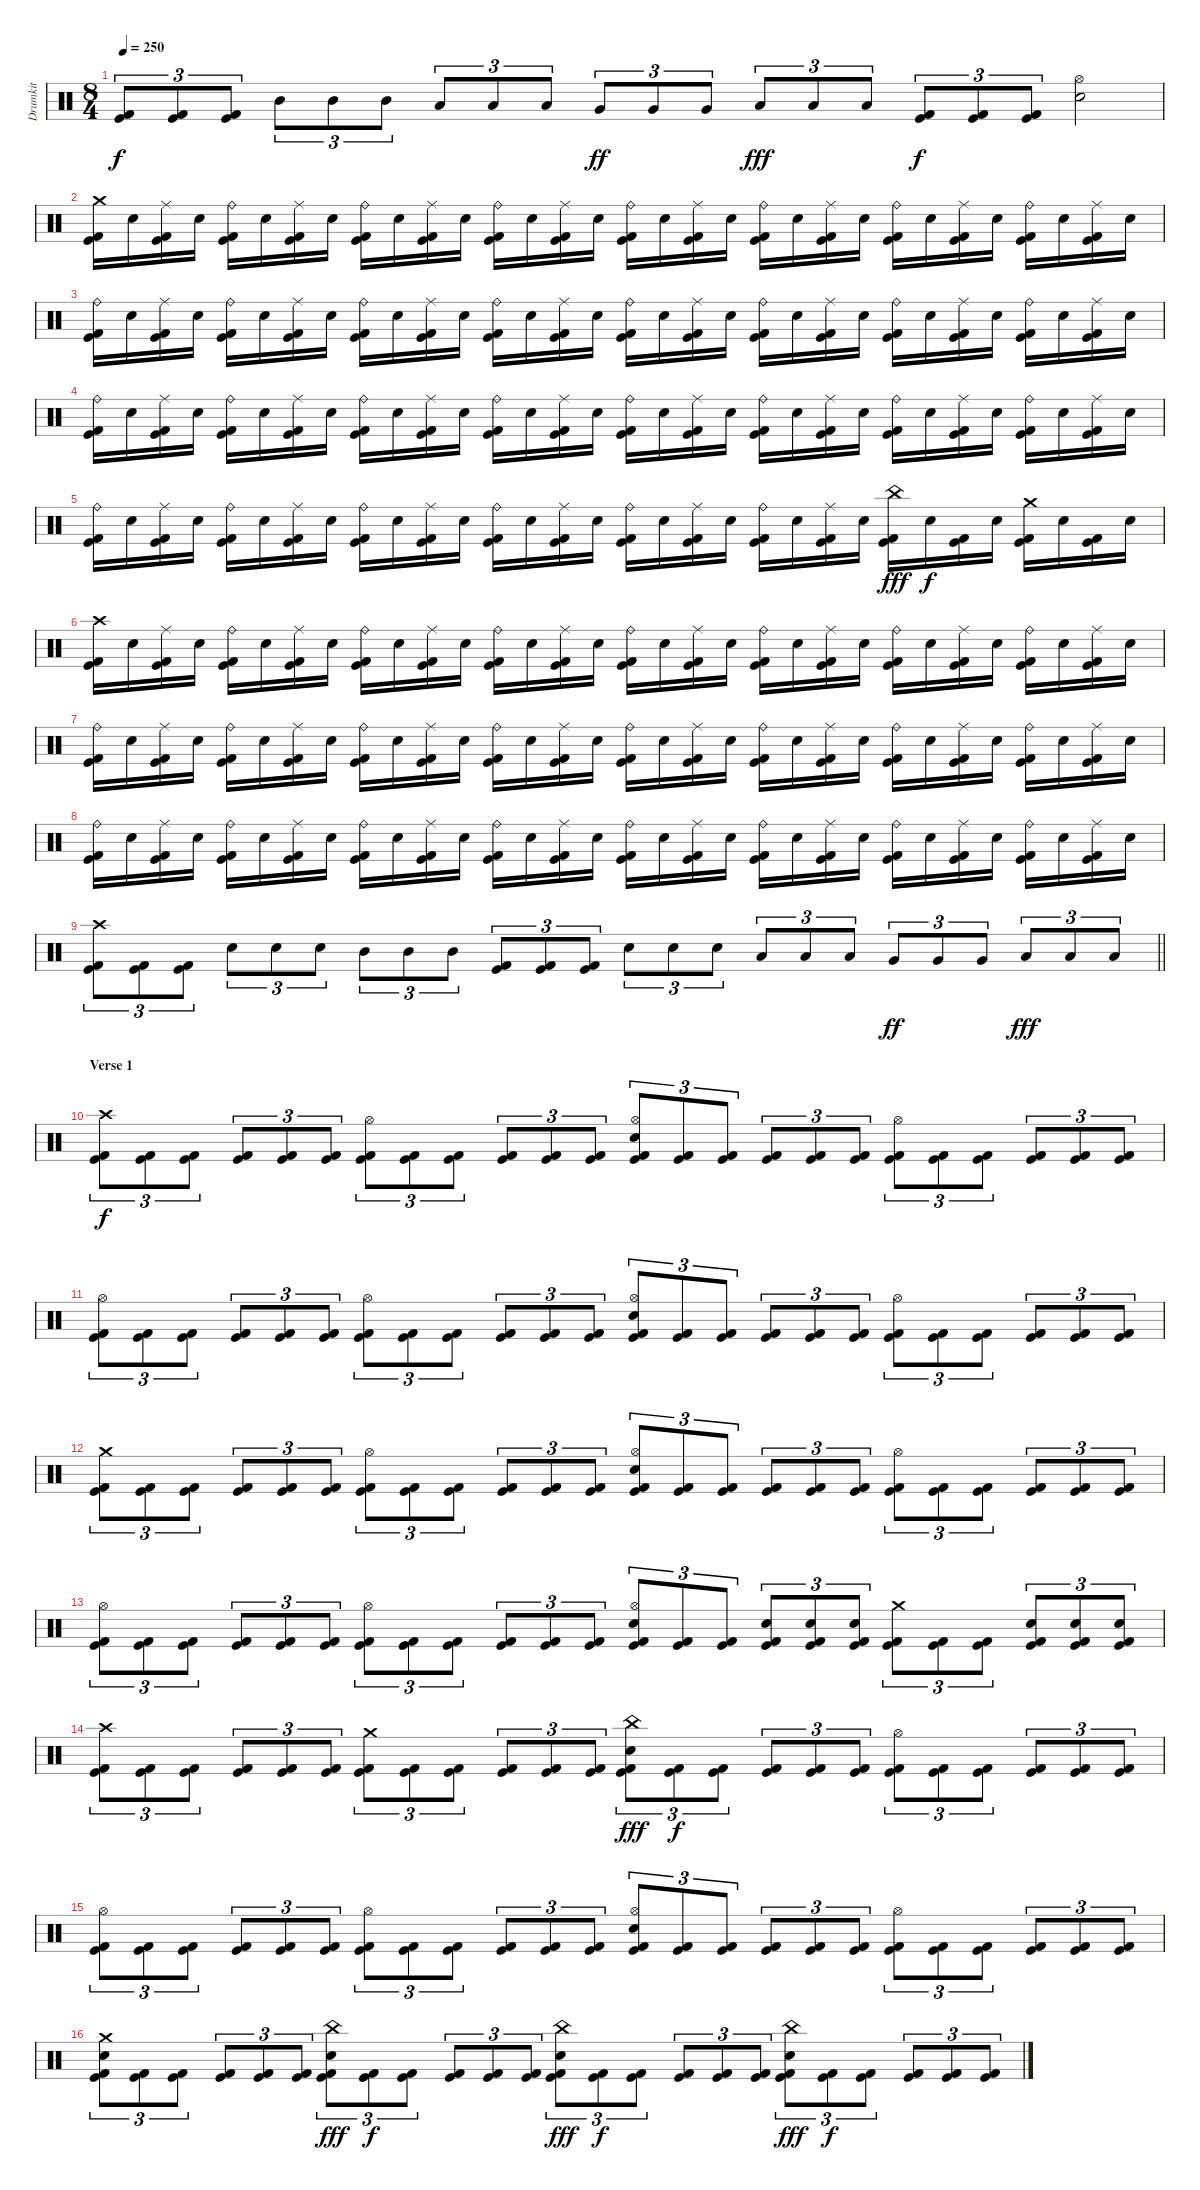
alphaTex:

\track ("Drumkit" "Drumkit") {instrument percussion}
\staff {score}
\articulation defaults
\ts (8 4)
\tempo 250
\clef neutral
\ks c
("Kick (hit)" "Kick (hit) 2").8{tu (3 2) dy f} ("Kick (hit)" "Kick (hit) 2").8{tu (3 2)} ("Kick (hit)" "Kick (hit) 2").8{tu (3 2)} "Mid Tom (hit)".8{tu (3 2)} "Mid Tom (hit)".8{tu (3 2)} "Mid Tom (hit)".8{tu (3 2)} "Low Tom (hit)".8{tu (3 2)} "Low Tom (hit)".8{tu (3 2)} "Low Tom (hit)".8{tu (3 2)} "Very Low Tom (hit)".8{tu (3 2) dy ff} "Very Low Tom (hit)".8{tu (3 2)} "Very Low Tom (hit)".8{tu (3 2)} "Low Floor Tom (hit)".8{tu (3 2) dy fff} "Low Floor Tom (hit)".8{tu (3 2)} "Low Floor Tom (hit)".8{tu (3 2)} ("Kick (hit)" "Kick (hit) 2").8{tu (3 2) dy f} ("Kick (hit)" "Kick (hit) 2").8{tu (3 2)} ("Kick (hit)" "Kick (hit) 2").8{tu (3 2)} ("Hi-Hat (open)" "Electric Snare (hit)").2 |
("Crash medium (hit)" "Kick (hit)" "Kick (hit) 2").16 "Electric Snare (hit)".16 ("Ride (middle)" "Kick (hit)" "Kick (hit) 2").16 "Electric Snare (hit)".16 ("Ride (bell)" "Kick (hit)" "Kick (hit) 2").16 "Electric Snare (hit)".16 ("Ride (middle)" "Kick (hit)" "Kick (hit) 2").16 "Electric Snare (hit)".16 ("Ride (bell)" "Kick (hit)" "Kick (hit) 2").16 "Electric Snare (hit)".16 ("Ride (middle)" "Kick (hit)" "Kick (hit) 2").16 "Electric Snare (hit)".16 ("Ride (bell)" "Kick (hit)" "Kick (hit) 2").16 "Electric Snare (hit)".16 ("Ride (middle)" "Kick (hit)" "Kick (hit) 2").16 "Electric Snare (hit)".16 ("Ride (bell)" "Kick (hit)" "Kick (hit) 2").16 "Electric Snare (hit)".16 ("Ride (middle)" "Kick (hit)" "Kick (hit) 2").16 "Electric Snare (hit)".16 ("Ride (bell)" "Kick (hit)" "Kick (hit) 2").16 "Electric Snare (hit)".16 ("Ride (middle)" "Kick (hit)" "Kick (hit) 2").16 "Electric Snare (hit)".16 ("Ride (bell)" "Kick (hit)" "Kick (hit) 2").16 "Electric Snare (hit)".16 ("Ride (middle)" "Kick (hit)" "Kick (hit) 2").16 "Electric Snare (hit)".16 ("Ride (bell)" "Kick (hit)" "Kick (hit) 2").16 "Electric Snare (hit)".16 ("Ride (middle)" "Kick (hit)" "Kick (hit) 2").16 "Electric Snare (hit)".16 |
("Ride (bell)" "Kick (hit)" "Kick (hit) 2").16 "Electric Snare (hit)".16 ("Ride (middle)" "Kick (hit)" "Kick (hit) 2").16 "Electric Snare (hit)".16 ("Ride (bell)" "Kick (hit)" "Kick (hit) 2").16 "Electric Snare (hit)".16 ("Ride (middle)" "Kick (hit)" "Kick (hit) 2").16 "Electric Snare (hit)".16 ("Ride (bell)" "Kick (hit)" "Kick (hit) 2").16 "Electric Snare (hit)".16 ("Ride (middle)" "Kick (hit)" "Kick (hit) 2").16 "Electric Snare (hit)".16 ("Ride (bell)" "Kick (hit)" "Kick (hit) 2").16 "Electric Snare (hit)".16 ("Ride (middle)" "Kick (hit)" "Kick (hit) 2").16 "Electric Snare (hit)".16 ("Ride (bell)" "Kick (hit)" "Kick (hit) 2").16 "Electric Snare (hit)".16 ("Ride (middle)" "Kick (hit)" "Kick (hit) 2").16 "Electric Snare (hit)".16 ("Ride (bell)" "Kick (hit)" "Kick (hit) 2").16 "Electric Snare (hit)".16 ("Ride (middle)" "Kick (hit)" "Kick (hit) 2").16 "Electric Snare (hit)".16 ("Ride (bell)" "Kick (hit)" "Kick (hit) 2").16 "Electric Snare (hit)".16 ("Ride (middle)" "Kick (hit)" "Kick (hit) 2").16 "Electric Snare (hit)".16 ("Ride (bell)" "Kick (hit)" "Kick (hit) 2").16 "Electric Snare (hit)".16 ("Ride (middle)" "Kick (hit)" "Kick (hit) 2").16 "Electric Snare (hit)".16 |
("Ride (bell)" "Kick (hit)" "Kick (hit) 2").16 "Electric Snare (hit)".16 ("Ride (middle)" "Kick (hit)" "Kick (hit) 2").16 "Electric Snare (hit)".16 ("Ride (bell)" "Kick (hit)" "Kick (hit) 2").16 "Electric Snare (hit)".16 ("Ride (middle)" "Kick (hit)" "Kick (hit) 2").16 "Electric Snare (hit)".16 ("Ride (bell)" "Kick (hit)" "Kick (hit) 2").16 "Electric Snare (hit)".16 ("Ride (middle)" "Kick (hit)" "Kick (hit) 2").16 "Electric Snare (hit)".16 ("Ride (bell)" "Kick (hit)" "Kick (hit) 2").16 "Electric Snare (hit)".16 ("Ride (middle)" "Kick (hit)" "Kick (hit) 2").16 "Electric Snare (hit)".16 ("Ride (bell)" "Kick (hit)" "Kick (hit) 2").16 "Electric Snare (hit)".16 ("Ride (middle)" "Kick (hit)" "Kick (hit) 2").16 "Electric Snare (hit)".16 ("Ride (bell)" "Kick (hit)" "Kick (hit) 2").16 "Electric Snare (hit)".16 ("Ride (middle)" "Kick (hit)" "Kick (hit) 2").16 "Electric Snare (hit)".16 ("Ride (bell)" "Kick (hit)" "Kick (hit) 2").16 "Electric Snare (hit)".16 ("Ride (middle)" "Kick (hit)" "Kick (hit) 2").16 "Electric Snare (hit)".16 ("Ride (bell)" "Kick (hit)" "Kick (hit) 2").16 "Electric Snare (hit)".16 ("Ride (middle)" "Kick (hit)" "Kick (hit) 2").16 "Electric Snare (hit)".16 |
("Ride (bell)" "Kick (hit)" "Kick (hit) 2").16 "Electric Snare (hit)".16 ("Ride (middle)" "Kick (hit)" "Kick (hit) 2").16 "Electric Snare (hit)".16 ("Ride (bell)" "Kick (hit)" "Kick (hit) 2").16 "Electric Snare (hit)".16 ("Ride (middle)" "Kick (hit)" "Kick (hit) 2").16 "Electric Snare (hit)".16 ("Ride (bell)" "Kick (hit)" "Kick (hit) 2").16 "Electric Snare (hit)".16 ("Ride (middle)" "Kick (hit)" "Kick (hit) 2").16 "Electric Snare (hit)".16 ("Ride (bell)" "Kick (hit)" "Kick (hit) 2").16 "Electric Snare (hit)".16 ("Ride (middle)" "Kick (hit)" "Kick (hit) 2").16 "Electric Snare (hit)".16 ("Ride (bell)" "Kick (hit)" "Kick (hit) 2").16 "Electric Snare (hit)".16 ("Ride (middle)" "Kick (hit)" "Kick (hit) 2").16 "Electric Snare (hit)".16 ("Ride (bell)" "Kick (hit)" "Kick (hit) 2").16 "Electric Snare (hit)".16 ("Ride (middle)" "Kick (hit)" "Kick (hit) 2").16 "Electric Snare (hit)".16 ("China (hit)" "Kick (hit)" "Kick (hit) 2").16{dy fff} "Electric Snare (hit)".16{dy f} ("Kick (hit)" "Kick (hit) 2").16 "Electric Snare (hit)".16 ("Crash medium (hit)" "Kick (hit)" "Kick (hit) 2").16 "Electric Snare (hit)".16 ("Kick (hit)" "Kick (hit) 2").16 "Electric Snare (hit)".16 |
("Crash high (hit)" "Kick (hit)" "Kick (hit) 2").16 "Electric Snare (hit)".16 ("Ride (middle)" "Kick (hit)" "Kick (hit) 2").16 "Electric Snare (hit)".16 ("Ride (bell)" "Kick (hit)" "Kick (hit) 2").16 "Electric Snare (hit)".16 ("Ride (middle)" "Kick (hit)" "Kick (hit) 2").16 "Electric Snare (hit)".16 ("Ride (bell)" "Kick (hit)" "Kick (hit) 2").16 "Electric Snare (hit)".16 ("Ride (middle)" "Kick (hit)" "Kick (hit) 2").16 "Electric Snare (hit)".16 ("Ride (bell)" "Kick (hit)" "Kick (hit) 2").16 "Electric Snare (hit)".16 ("Ride (middle)" "Kick (hit)" "Kick (hit) 2").16 "Electric Snare (hit)".16 ("Ride (bell)" "Kick (hit)" "Kick (hit) 2").16 "Electric Snare (hit)".16 ("Ride (middle)" "Kick (hit)" "Kick (hit) 2").16 "Electric Snare (hit)".16 ("Ride (bell)" "Kick (hit)" "Kick (hit) 2").16 "Electric Snare (hit)".16 ("Ride (middle)" "Kick (hit)" "Kick (hit) 2").16 "Electric Snare (hit)".16 ("Ride (bell)" "Kick (hit)" "Kick (hit) 2").16 "Electric Snare (hit)".16 ("Ride (middle)" "Kick (hit)" "Kick (hit) 2").16 "Electric Snare (hit)".16 ("Ride (bell)" "Kick (hit)" "Kick (hit) 2").16 "Electric Snare (hit)".16 ("Ride (middle)" "Kick (hit)" "Kick (hit) 2").16 "Electric Snare (hit)".16 |
("Ride (bell)" "Kick (hit)" "Kick (hit) 2").16 "Electric Snare (hit)".16 ("Ride (middle)" "Kick (hit)" "Kick (hit) 2").16 "Electric Snare (hit)".16 ("Ride (bell)" "Kick (hit)" "Kick (hit) 2").16 "Electric Snare (hit)".16 ("Ride (middle)" "Kick (hit)" "Kick (hit) 2").16 "Electric Snare (hit)".16 ("Ride (bell)" "Kick (hit)" "Kick (hit) 2").16 "Electric Snare (hit)".16 ("Ride (middle)" "Kick (hit)" "Kick (hit) 2").16 "Electric Snare (hit)".16 ("Ride (bell)" "Kick (hit)" "Kick (hit) 2").16 "Electric Snare (hit)".16 ("Ride (middle)" "Kick (hit)" "Kick (hit) 2").16 "Electric Snare (hit)".16 ("Ride (bell)" "Kick (hit)" "Kick (hit) 2").16 "Electric Snare (hit)".16 ("Ride (middle)" "Kick (hit)" "Kick (hit) 2").16 "Electric Snare (hit)".16 ("Ride (bell)" "Kick (hit)" "Kick (hit) 2").16 "Electric Snare (hit)".16 ("Ride (middle)" "Kick (hit)" "Kick (hit) 2").16 "Electric Snare (hit)".16 ("Ride (bell)" "Kick (hit)" "Kick (hit) 2").16 "Electric Snare (hit)".16 ("Ride (middle)" "Kick (hit)" "Kick (hit) 2").16 "Electric Snare (hit)".16 ("Ride (bell)" "Kick (hit)" "Kick (hit) 2").16 "Electric Snare (hit)".16 ("Ride (middle)" "Kick (hit)" "Kick (hit) 2").16 "Electric Snare (hit)".16 |
("Ride (bell)" "Kick (hit)" "Kick (hit) 2").16 "Electric Snare (hit)".16 ("Ride (middle)" "Kick (hit)" "Kick (hit) 2").16 "Electric Snare (hit)".16 ("Ride (bell)" "Kick (hit)" "Kick (hit) 2").16 "Electric Snare (hit)".16 ("Ride (middle)" "Kick (hit)" "Kick (hit) 2").16 "Electric Snare (hit)".16 ("Ride (bell)" "Kick (hit)" "Kick (hit) 2").16 "Electric Snare (hit)".16 ("Ride (middle)" "Kick (hit)" "Kick (hit) 2").16 "Electric Snare (hit)".16 ("Ride (bell)" "Kick (hit)" "Kick (hit) 2").16 "Electric Snare (hit)".16 ("Ride (middle)" "Kick (hit)" "Kick (hit) 2").16 "Electric Snare (hit)".16 ("Ride (bell)" "Kick (hit)" "Kick (hit) 2").16 "Electric Snare (hit)".16 ("Ride (middle)" "Kick (hit)" "Kick (hit) 2").16 "Electric Snare (hit)".16 ("Ride (bell)" "Kick (hit)" "Kick (hit) 2").16 "Electric Snare (hit)".16 ("Ride (middle)" "Kick (hit)" "Kick (hit) 2").16 "Electric Snare (hit)".16 ("Ride (bell)" "Kick (hit)" "Kick (hit) 2").16 "Electric Snare (hit)".16 ("Ride (middle)" "Kick (hit)" "Kick (hit) 2").16 "Electric Snare (hit)".16 ("Ride (bell)" "Kick (hit)" "Kick (hit) 2").16 "Electric Snare (hit)".16 ("Ride (middle)" "Kick (hit)" "Kick (hit) 2").16 "Electric Snare (hit)".16 |
\barLineRight lightlight
("Crash high (hit)" "Kick (hit)" "Kick (hit) 2").8{tu (3 2)} ("Kick (hit)" "Kick (hit) 2").8{tu (3 2)} ("Kick (hit)" "Kick (hit) 2").8{tu (3 2)} "Electric Snare (hit)".8{tu (3 2)} "Electric Snare (hit)".8{tu (3 2)} "Electric Snare (hit)".8{tu (3 2)} "Mid Tom (hit)".8{tu (3 2)} "Mid Tom (hit)".8{tu (3 2)} "Mid Tom (hit)".8{tu (3 2)} ("Kick (hit)" "Kick (hit) 2").8{tu (3 2)} ("Kick (hit)" "Kick (hit) 2").8{tu (3 2)} ("Kick (hit)" "Kick (hit) 2").8{tu (3 2)} "Electric Snare (hit)".8{tu (3 2)} "Electric Snare (hit)".8{tu (3 2)} "Electric Snare (hit)".8{tu (3 2)} "Low Tom (hit)".8{tu (3 2)} "Low Tom (hit)".8{tu (3 2)} "Low Tom (hit)".8{tu (3 2)} "Very Low Tom (hit)".8{tu (3 2) dy ff} "Very Low Tom (hit)".8{tu (3 2)} "Very Low Tom (hit)".8{tu (3 2)} "Low Floor Tom (hit)".8{tu (3 2) dy fff} "Low Floor Tom (hit)".8{tu (3 2)} "Low Floor Tom (hit)".8{tu (3 2)} |
\section ("" "Verse 1")
("Crash high (hit)" "Kick (hit)" "Kick (hit) 2").8{tu (3 2) dy f} ("Kick (hit)" "Kick (hit) 2").8{tu (3 2)} ("Kick (hit)" "Kick (hit) 2").8{tu (3 2)} ("Kick (hit)" "Kick (hit) 2").8{tu (3 2)} ("Kick (hit)" "Kick (hit) 2").8{tu (3 2)} ("Kick (hit)" "Kick (hit) 2").8{tu (3 2)} ("Hi-Hat (open)" "Kick (hit)" "Kick (hit) 2").8{tu (3 2)} ("Kick (hit)" "Kick (hit) 2").8{tu (3 2)} ("Kick (hit)" "Kick (hit) 2").8{tu (3 2)} ("Kick (hit)" "Kick (hit) 2").8{tu (3 2)} ("Kick (hit)" "Kick (hit) 2").8{tu (3 2)} ("Kick (hit)" "Kick (hit) 2").8{tu (3 2)} ("Hi-Hat (open)" "Electric Snare (hit)" "Kick (hit)" "Kick (hit) 2").8{tu (3 2)} ("Kick (hit)" "Kick (hit) 2").8{tu (3 2)} ("Kick (hit)" "Kick (hit) 2").8{tu (3 2)} ("Kick (hit)" "Kick (hit) 2").8{tu (3 2)} ("Kick (hit)" "Kick (hit) 2").8{tu (3 2)} ("Kick (hit)" "Kick (hit) 2").8{tu (3 2)} ("Hi-Hat (open)" "Kick (hit)" "Kick (hit) 2").8{tu (3 2)} ("Kick (hit)" "Kick (hit) 2").8{tu (3 2)} ("Kick (hit)" "Kick (hit) 2").8{tu (3 2)} ("Kick (hit)" "Kick (hit) 2").8{tu (3 2)} ("Kick (hit)" "Kick (hit) 2").8{tu (3 2)} ("Kick (hit)" "Kick (hit) 2").8{tu (3 2)} |
("Hi-Hat (open)" "Kick (hit)" "Kick (hit) 2").8{tu (3 2)} ("Kick (hit)" "Kick (hit) 2").8{tu (3 2)} ("Kick (hit)" "Kick (hit) 2").8{tu (3 2)} ("Kick (hit)" "Kick (hit) 2").8{tu (3 2)} ("Kick (hit)" "Kick (hit) 2").8{tu (3 2)} ("Kick (hit)" "Kick (hit) 2").8{tu (3 2)} ("Hi-Hat (open)" "Kick (hit)" "Kick (hit) 2").8{tu (3 2)} ("Kick (hit)" "Kick (hit) 2").8{tu (3 2)} ("Kick (hit)" "Kick (hit) 2").8{tu (3 2)} ("Kick (hit)" "Kick (hit) 2").8{tu (3 2)} ("Kick (hit)" "Kick (hit) 2").8{tu (3 2)} ("Kick (hit)" "Kick (hit) 2").8{tu (3 2)} ("Hi-Hat (open)" "Electric Snare (hit)" "Kick (hit)" "Kick (hit) 2").8{tu (3 2)} ("Kick (hit)" "Kick (hit) 2").8{tu (3 2)} ("Kick (hit)" "Kick (hit) 2").8{tu (3 2)} ("Kick (hit)" "Kick (hit) 2").8{tu (3 2)} ("Kick (hit)" "Kick (hit) 2").8{tu (3 2)} ("Kick (hit)" "Kick (hit) 2").8{tu (3 2)} ("Hi-Hat (open)" "Kick (hit)" "Kick (hit) 2").8{tu (3 2)} ("Kick (hit)" "Kick (hit) 2").8{tu (3 2)} ("Kick (hit)" "Kick (hit) 2").8{tu (3 2)} ("Kick (hit)" "Kick (hit) 2").8{tu (3 2)} ("Kick (hit)" "Kick (hit) 2").8{tu (3 2)} ("Kick (hit)" "Kick (hit) 2").8{tu (3 2)} |
("Crash medium (hit)" "Kick (hit)" "Kick (hit) 2").8{tu (3 2)} ("Kick (hit)" "Kick (hit) 2").8{tu (3 2)} ("Kick (hit)" "Kick (hit) 2").8{tu (3 2)} ("Kick (hit)" "Kick (hit) 2").8{tu (3 2)} ("Kick (hit)" "Kick (hit) 2").8{tu (3 2)} ("Kick (hit)" "Kick (hit) 2").8{tu (3 2)} ("Hi-Hat (open)" "Kick (hit)" "Kick (hit) 2").8{tu (3 2)} ("Kick (hit)" "Kick (hit) 2").8{tu (3 2)} ("Kick (hit)" "Kick (hit) 2").8{tu (3 2)} ("Kick (hit)" "Kick (hit) 2").8{tu (3 2)} ("Kick (hit)" "Kick (hit) 2").8{tu (3 2)} ("Kick (hit)" "Kick (hit) 2").8{tu (3 2)} ("Hi-Hat (open)" "Electric Snare (hit)" "Kick (hit)" "Kick (hit) 2").8{tu (3 2)} ("Kick (hit)" "Kick (hit) 2").8{tu (3 2)} ("Kick (hit)" "Kick (hit) 2").8{tu (3 2)} ("Kick (hit)" "Kick (hit) 2").8{tu (3 2)} ("Kick (hit)" "Kick (hit) 2").8{tu (3 2)} ("Kick (hit)" "Kick (hit) 2").8{tu (3 2)} ("Hi-Hat (open)" "Kick (hit)" "Kick (hit) 2").8{tu (3 2)} ("Kick (hit)" "Kick (hit) 2").8{tu (3 2)} ("Kick (hit)" "Kick (hit) 2").8{tu (3 2)} ("Kick (hit)" "Kick (hit) 2").8{tu (3 2)} ("Kick (hit)" "Kick (hit) 2").8{tu (3 2)} ("Kick (hit)" "Kick (hit) 2").8{tu (3 2)} |
("Hi-Hat (open)" "Kick (hit)" "Kick (hit) 2").8{tu (3 2)} ("Kick (hit)" "Kick (hit) 2").8{tu (3 2)} ("Kick (hit)" "Kick (hit) 2").8{tu (3 2)} ("Kick (hit)" "Kick (hit) 2").8{tu (3 2)} ("Kick (hit)" "Kick (hit) 2").8{tu (3 2)} ("Kick (hit)" "Kick (hit) 2").8{tu (3 2)} ("Hi-Hat (open)" "Kick (hit)" "Kick (hit) 2").8{tu (3 2)} ("Kick (hit)" "Kick (hit) 2").8{tu (3 2)} ("Kick (hit)" "Kick (hit) 2").8{tu (3 2)} ("Kick (hit)" "Kick (hit) 2").8{tu (3 2)} ("Kick (hit)" "Kick (hit) 2").8{tu (3 2)} ("Kick (hit)" "Kick (hit) 2").8{tu (3 2)} ("Hi-Hat (open)" "Electric Snare (hit)" "Kick (hit)" "Kick (hit) 2").8{tu (3 2)} ("Kick (hit)" "Kick (hit) 2").8{tu (3 2)} ("Kick (hit)" "Kick (hit) 2").8{tu (3 2)} ("Electric Snare (hit)" "Kick (hit)" "Kick (hit) 2").8{tu (3 2)} ("Electric Snare (hit)" "Kick (hit)" "Kick (hit) 2").8{tu (3 2)} ("Electric Snare (hit)" "Kick (hit)" "Kick (hit) 2").8{tu (3 2)} ("Crash medium (hit)" "Kick (hit)" "Kick (hit) 2").8{tu (3 2)} ("Kick (hit)" "Kick (hit) 2").8{tu (3 2)} ("Kick (hit)" "Kick (hit) 2").8{tu (3 2)} ("Electric Snare (hit)" "Kick (hit)" "Kick (hit) 2").8{tu (3 2)} ("Electric Snare (hit)" "Kick (hit)" "Kick (hit) 2").8{tu (3 2)} ("Electric Snare (hit)" "Kick (hit)" "Kick (hit) 2").8{tu (3 2)} |
("Crash high (hit)" "Kick (hit)" "Kick (hit) 2").8{tu (3 2)} ("Kick (hit)" "Kick (hit) 2").8{tu (3 2)} ("Kick (hit)" "Kick (hit) 2").8{tu (3 2)} ("Kick (hit)" "Kick (hit) 2").8{tu (3 2)} ("Kick (hit)" "Kick (hit) 2").8{tu (3 2)} ("Kick (hit)" "Kick (hit) 2").8{tu (3 2)} ("Crash medium (hit)" "Kick (hit)" "Kick (hit) 2").8{tu (3 2)} ("Kick (hit)" "Kick (hit) 2").8{tu (3 2)} ("Kick (hit)" "Kick (hit) 2").8{tu (3 2)} ("Kick (hit)" "Kick (hit) 2").8{tu (3 2)} ("Kick (hit)" "Kick (hit) 2").8{tu (3 2)} ("Kick (hit)" "Kick (hit) 2").8{tu (3 2)} ("China (hit)" "Electric Snare (hit)" "Kick (hit)" "Kick (hit) 2").8{tu (3 2) dy fff} ("Kick (hit)" "Kick (hit) 2").8{tu (3 2) dy f} ("Kick (hit)" "Kick (hit) 2").8{tu (3 2)} ("Kick (hit)" "Kick (hit) 2").8{tu (3 2)} ("Kick (hit)" "Kick (hit) 2").8{tu (3 2)} ("Kick (hit)" "Kick (hit) 2").8{tu (3 2)} ("Hi-Hat (open)" "Kick (hit)" "Kick (hit) 2").8{tu (3 2)} ("Kick (hit)" "Kick (hit) 2").8{tu (3 2)} ("Kick (hit)" "Kick (hit) 2").8{tu (3 2)} ("Kick (hit)" "Kick (hit) 2").8{tu (3 2)} ("Kick (hit)" "Kick (hit) 2").8{tu (3 2)} ("Kick (hit)" "Kick (hit) 2").8{tu (3 2)} |
("Hi-Hat (open)" "Kick (hit)" "Kick (hit) 2").8{tu (3 2)} ("Kick (hit)" "Kick (hit) 2").8{tu (3 2)} ("Kick (hit)" "Kick (hit) 2").8{tu (3 2)} ("Kick (hit)" "Kick (hit) 2").8{tu (3 2)} ("Kick (hit)" "Kick (hit) 2").8{tu (3 2)} ("Kick (hit)" "Kick (hit) 2").8{tu (3 2)} ("Hi-Hat (open)" "Kick (hit)" "Kick (hit) 2").8{tu (3 2)} ("Kick (hit)" "Kick (hit) 2").8{tu (3 2)} ("Kick (hit)" "Kick (hit) 2").8{tu (3 2)} ("Kick (hit)" "Kick (hit) 2").8{tu (3 2)} ("Kick (hit)" "Kick (hit) 2").8{tu (3 2)} ("Kick (hit)" "Kick (hit) 2").8{tu (3 2)} ("Hi-Hat (open)" "Electric Snare (hit)" "Kick (hit)" "Kick (hit) 2").8{tu (3 2)} ("Kick (hit)" "Kick (hit) 2").8{tu (3 2)} ("Kick (hit)" "Kick (hit) 2").8{tu (3 2)} ("Kick (hit)" "Kick (hit) 2").8{tu (3 2)} ("Kick (hit)" "Kick (hit) 2").8{tu (3 2)} ("Kick (hit)" "Kick (hit) 2").8{tu (3 2)} ("Hi-Hat (open)" "Kick (hit)" "Kick (hit) 2").8{tu (3 2)} ("Kick (hit)" "Kick (hit) 2").8{tu (3 2)} ("Kick (hit)" "Kick (hit) 2").8{tu (3 2)} ("Kick (hit)" "Kick (hit) 2").8{tu (3 2)} ("Kick (hit)" "Kick (hit) 2").8{tu (3 2)} ("Kick (hit)" "Kick (hit) 2").8{tu (3 2)} |
("Crash medium (hit)" "Electric Snare (hit)" "Kick (hit)" "Kick (hit) 2").8{tu (3 2)} ("Kick (hit)" "Kick (hit) 2").8{tu (3 2)} ("Kick (hit)" "Kick (hit) 2").8{tu (3 2)} ("Kick (hit)" "Kick (hit) 2").8{tu (3 2)} ("Kick (hit)" "Kick (hit) 2").8{tu (3 2)} ("Kick (hit)" "Kick (hit) 2").8{tu (3 2)} ("China (hit)" "Electric Snare (hit)" "Kick (hit)" "Kick (hit) 2").8{tu (3 2) dy fff} ("Kick (hit)" "Kick (hit) 2").8{tu (3 2) dy f} ("Kick (hit)" "Kick (hit) 2").8{tu (3 2)} ("Kick (hit)" "Kick (hit) 2").8{tu (3 2)} ("Kick (hit)" "Kick (hit) 2").8{tu (3 2)} ("Kick (hit)" "Kick (hit) 2").8{tu (3 2)} ("China (hit)" "Electric Snare (hit)" "Kick (hit)" "Kick (hit) 2").8{tu (3 2) dy fff} ("Kick (hit)" "Kick (hit) 2").8{tu (3 2) dy f} ("Kick (hit)" "Kick (hit) 2").8{tu (3 2)} ("Kick (hit)" "Kick (hit) 2").8{tu (3 2)} ("Kick (hit)" "Kick (hit) 2").8{tu (3 2)} ("Kick (hit)" "Kick (hit) 2").8{tu (3 2)} ("China (hit)" "Electric Snare (hit)" "Kick (hit)" "Kick (hit) 2").8{tu (3 2) dy fff} ("Kick (hit)" "Kick (hit) 2").8{tu (3 2) dy f} ("Kick (hit)" "Kick (hit) 2").8{tu (3 2)} ("Kick (hit)" "Kick (hit) 2").8{tu (3 2)} ("Kick (hit)" "Kick (hit) 2").8{tu (3 2)} ("Kick (hit)" "Kick (hit) 2").8{tu (3 2)}
